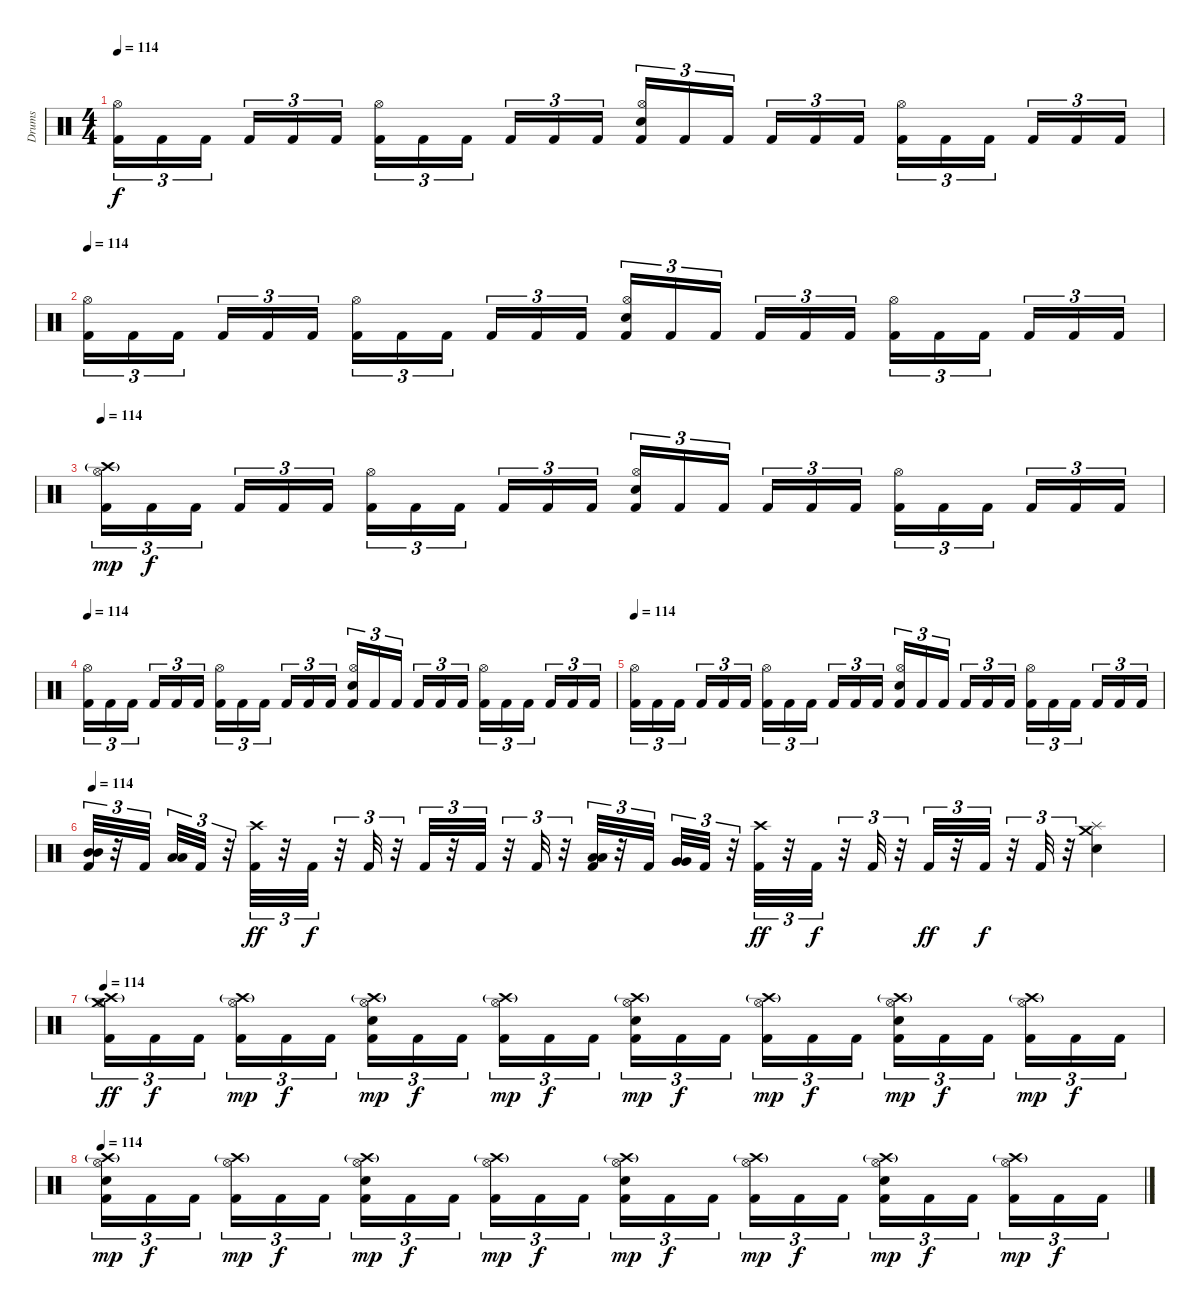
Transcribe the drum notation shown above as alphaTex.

\track ("Drums" "Drums") {instrument percussion}
\staff {score}
\articulation defaults
\ts (4 4)
\tempo 114
\clef neutral
\ks c
("Kick (hit) 2" "Hi-Hat (open)").16{tu (3 2) dy f} "Kick (hit) 2".16{tu (3 2)} "Kick (hit) 2".16{tu (3 2)} "Kick (hit) 2".16{tu (3 2)} "Kick (hit) 2".16{tu (3 2)} "Kick (hit) 2".16{tu (3 2)} ("Kick (hit) 2" "Hi-Hat (open)").16{tu (3 2)} "Kick (hit) 2".16{tu (3 2)} "Kick (hit) 2".16{tu (3 2)} "Kick (hit) 2".16{tu (3 2)} "Kick (hit) 2".16{tu (3 2)} "Kick (hit) 2".16{tu (3 2)} ("Kick (hit) 2" "Electric Snare (hit)" "Hi-Hat (open)").16{tu (3 2)} "Kick (hit) 2".16{tu (3 2)} "Kick (hit) 2".16{tu (3 2)} "Kick (hit) 2".16{tu (3 2)} "Kick (hit) 2".16{tu (3 2)} "Kick (hit) 2".16{tu (3 2)} ("Kick (hit) 2" "Hi-Hat (open)").16{tu (3 2)} "Kick (hit) 2".16{tu (3 2)} "Kick (hit) 2".16{tu (3 2)} "Kick (hit) 2".16{tu (3 2)} "Kick (hit) 2".16{tu (3 2)} "Kick (hit) 2".16{tu (3 2)} |
\tempo 114
("Kick (hit) 2" "Hi-Hat (open)").16{tu (3 2)} "Kick (hit) 2".16{tu (3 2)} "Kick (hit) 2".16{tu (3 2)} "Kick (hit) 2".16{tu (3 2)} "Kick (hit) 2".16{tu (3 2)} "Kick (hit) 2".16{tu (3 2)} ("Kick (hit) 2" "Hi-Hat (open)").16{tu (3 2)} "Kick (hit) 2".16{tu (3 2)} "Kick (hit) 2".16{tu (3 2)} "Kick (hit) 2".16{tu (3 2)} "Kick (hit) 2".16{tu (3 2)} "Kick (hit) 2".16{tu (3 2)} ("Kick (hit) 2" "Electric Snare (hit)" "Hi-Hat (open)").16{tu (3 2)} "Kick (hit) 2".16{tu (3 2)} "Kick (hit) 2".16{tu (3 2)} "Kick (hit) 2".16{tu (3 2)} "Kick (hit) 2".16{tu (3 2)} "Kick (hit) 2".16{tu (3 2)} ("Kick (hit) 2" "Hi-Hat (open)").16{tu (3 2)} "Kick (hit) 2".16{tu (3 2)} "Kick (hit) 2".16{tu (3 2)} "Kick (hit) 2".16{tu (3 2)} "Kick (hit) 2".16{tu (3 2)} "Kick (hit) 2".16{tu (3 2)} |
\tempo 114
("Kick (hit) 2" "Hi-Hat (open)" "Crash high (hit)"{g}).16{tu (3 2) dy mp} "Kick (hit) 2".16{tu (3 2) dy f} "Kick (hit) 2".16{tu (3 2)} "Kick (hit) 2".16{tu (3 2)} "Kick (hit) 2".16{tu (3 2)} "Kick (hit) 2".16{tu (3 2)} ("Kick (hit) 2" "Hi-Hat (open)").16{tu (3 2)} "Kick (hit) 2".16{tu (3 2)} "Kick (hit) 2".16{tu (3 2)} "Kick (hit) 2".16{tu (3 2)} "Kick (hit) 2".16{tu (3 2)} "Kick (hit) 2".16{tu (3 2)} ("Kick (hit) 2" "Electric Snare (hit)" "Hi-Hat (open)").16{tu (3 2)} "Kick (hit) 2".16{tu (3 2)} "Kick (hit) 2".16{tu (3 2)} "Kick (hit) 2".16{tu (3 2)} "Kick (hit) 2".16{tu (3 2)} "Kick (hit) 2".16{tu (3 2)} ("Kick (hit) 2" "Hi-Hat (open)").16{tu (3 2)} "Kick (hit) 2".16{tu (3 2)} "Kick (hit) 2".16{tu (3 2)} "Kick (hit) 2".16{tu (3 2)} "Kick (hit) 2".16{tu (3 2)} "Kick (hit) 2".16{tu (3 2)} |
\tempo 114
("Kick (hit) 2" "Hi-Hat (open)").16{tu (3 2)} "Kick (hit) 2".16{tu (3 2)} "Kick (hit) 2".16{tu (3 2)} "Kick (hit) 2".16{tu (3 2)} "Kick (hit) 2".16{tu (3 2)} "Kick (hit) 2".16{tu (3 2)} ("Kick (hit) 2" "Hi-Hat (open)").16{tu (3 2)} "Kick (hit) 2".16{tu (3 2)} "Kick (hit) 2".16{tu (3 2)} "Kick (hit) 2".16{tu (3 2)} "Kick (hit) 2".16{tu (3 2)} "Kick (hit) 2".16{tu (3 2)} ("Kick (hit) 2" "Electric Snare (hit)" "Hi-Hat (open)").16{tu (3 2)} "Kick (hit) 2".16{tu (3 2)} "Kick (hit) 2".16{tu (3 2)} "Kick (hit) 2".16{tu (3 2)} "Kick (hit) 2".16{tu (3 2)} "Kick (hit) 2".16{tu (3 2)} ("Kick (hit) 2" "Hi-Hat (open)").16{tu (3 2)} "Kick (hit) 2".16{tu (3 2)} "Kick (hit) 2".16{tu (3 2)} "Kick (hit) 2".16{tu (3 2)} "Kick (hit) 2".16{tu (3 2)} "Kick (hit) 2".16{tu (3 2)} |
\tempo 114
("Kick (hit) 2" "Hi-Hat (open)").16{tu (3 2)} "Kick (hit) 2".16{tu (3 2)} "Kick (hit) 2".16{tu (3 2)} "Kick (hit) 2".16{tu (3 2)} "Kick (hit) 2".16{tu (3 2)} "Kick (hit) 2".16{tu (3 2)} ("Kick (hit) 2" "Hi-Hat (open)").16{tu (3 2)} "Kick (hit) 2".16{tu (3 2)} "Kick (hit) 2".16{tu (3 2)} "Kick (hit) 2".16{tu (3 2)} "Kick (hit) 2".16{tu (3 2)} "Kick (hit) 2".16{tu (3 2)} ("Kick (hit) 2" "Electric Snare (hit)" "Hi-Hat (open)").16{tu (3 2)} "Kick (hit) 2".16{tu (3 2)} "Kick (hit) 2".16{tu (3 2)} "Kick (hit) 2".16{tu (3 2)} "Kick (hit) 2".16{tu (3 2)} "Kick (hit) 2".16{tu (3 2)} ("Kick (hit) 2" "Hi-Hat (open)").16{tu (3 2)} "Kick (hit) 2".16{tu (3 2)} "Kick (hit) 2".16{tu (3 2)} "Kick (hit) 2".16{tu (3 2)} "Kick (hit) 2".16{tu (3 2)} "Kick (hit) 2".16{tu (3 2)} |
\tempo 114
("Kick (hit) 2" "Mid Tom (hit)" "Mid Tom (hit)").32{tu (3 2)} r.32{tu (3 2)} "Kick (hit) 2".32{tu (3 2)} ("Low Tom (hit)" "Low Tom (hit)").32{tu (3 2)} "Kick (hit) 2".32{tu (3 2)} r.32{tu (3 2)} ("Kick (hit) 2" "Crash high (hit)").32{tu (3 2) dy ff} r.32{tu (3 2)} "Kick (hit) 2".32{tu (3 2) dy f} r.32{tu (3 2)} "Kick (hit) 2".32{tu (3 2)} r.32{tu (3 2)} "Kick (hit) 2".32{tu (3 2)} r.32{tu (3 2)} "Kick (hit) 2".32{tu (3 2)} r.32{tu (3 2)} "Kick (hit) 2".32{tu (3 2)} r.32{tu (3 2)} ("Kick (hit) 2" "Low Tom (hit)" "Low Tom (hit)").32{tu (3 2)} r.32{tu (3 2)} "Kick (hit) 2".32{tu (3 2)} ("Very Low Tom (hit)" "Very Low Tom (hit)").32{tu (3 2)} "Kick (hit) 2".32{tu (3 2)} r.32{tu (3 2)} ("Kick (hit) 2" "Crash high (hit)").32{tu (3 2) dy ff} r.32{tu (3 2)} "Kick (hit) 2".32{tu (3 2) dy f} r.32{tu (3 2)} "Kick (hit) 2".32{tu (3 2)} r.32{tu (3 2)} "Kick (hit) 2".32{tu (3 2) dy ff} r.32{tu (3 2)} "Kick (hit) 2".32{tu (3 2) dy f} r.32{tu (3 2)} "Kick (hit) 2".32{tu (3 2)} r.32{tu (3 2)} ("Electric Snare (hit)" "Crash medium (hit)" "Splash (hit)").4 |
\tempo 114
("Kick (hit) 2" "Hi-Hat (open)" "Crash high (hit)"{g} "Crash medium (hit)").16{tu (3 2) dy ff} "Kick (hit) 2".16{tu (3 2) dy f} "Kick (hit) 2".16{tu (3 2)} ("Kick (hit) 2" "Hi-Hat (open)" "Crash high (hit)"{g}).16{tu (3 2) dy mp} "Kick (hit) 2".16{tu (3 2) dy f} "Kick (hit) 2".16{tu (3 2)} ("Kick (hit) 2" "Electric Snare (hit)" "Hi-Hat (open)" "Crash high (hit)"{g}).16{tu (3 2) dy mp} "Kick (hit) 2".16{tu (3 2) dy f} "Kick (hit) 2".16{tu (3 2)} ("Kick (hit) 2" "Hi-Hat (open)" "Crash high (hit)"{g}).16{tu (3 2) dy mp} "Kick (hit) 2".16{tu (3 2) dy f} "Kick (hit) 2".16{tu (3 2)} ("Kick (hit) 2" "Electric Snare (hit)" "Hi-Hat (open)" "Crash high (hit)"{g}).16{tu (3 2) dy mp} "Kick (hit) 2".16{tu (3 2) dy f} "Kick (hit) 2".16{tu (3 2)} ("Kick (hit) 2" "Hi-Hat (open)" "Crash high (hit)"{g}).16{tu (3 2) dy mp} "Kick (hit) 2".16{tu (3 2) dy f} "Kick (hit) 2".16{tu (3 2)} ("Kick (hit) 2" "Electric Snare (hit)" "Hi-Hat (open)" "Crash high (hit)"{g}).16{tu (3 2) dy mp} "Kick (hit) 2".16{tu (3 2) dy f} "Kick (hit) 2".16{tu (3 2)} ("Kick (hit) 2" "Hi-Hat (open)" "Crash high (hit)"{g}).16{tu (3 2) dy mp} "Kick (hit) 2".16{tu (3 2) dy f} "Kick (hit) 2".16{tu (3 2)} |
\tempo 114
("Kick (hit) 2" "Electric Snare (hit)" "Hi-Hat (open)" "Crash high (hit)"{g}).16{tu (3 2) dy mp} "Kick (hit) 2".16{tu (3 2) dy f} "Kick (hit) 2".16{tu (3 2)} ("Kick (hit) 2" "Hi-Hat (open)" "Crash high (hit)"{g}).16{tu (3 2) dy mp} "Kick (hit) 2".16{tu (3 2) dy f} "Kick (hit) 2".16{tu (3 2)} ("Kick (hit) 2" "Electric Snare (hit)" "Hi-Hat (open)" "Crash high (hit)"{g}).16{tu (3 2) dy mp} "Kick (hit) 2".16{tu (3 2) dy f} "Kick (hit) 2".16{tu (3 2)} ("Kick (hit) 2" "Hi-Hat (open)" "Crash high (hit)"{g}).16{tu (3 2) dy mp} "Kick (hit) 2".16{tu (3 2) dy f} "Kick (hit) 2".16{tu (3 2)} ("Kick (hit) 2" "Electric Snare (hit)" "Hi-Hat (open)" "Crash high (hit)"{g}).16{tu (3 2) dy mp} "Kick (hit) 2".16{tu (3 2) dy f} "Kick (hit) 2".16{tu (3 2)} ("Kick (hit) 2" "Hi-Hat (open)" "Crash high (hit)"{g}).16{tu (3 2) dy mp} "Kick (hit) 2".16{tu (3 2) dy f} "Kick (hit) 2".16{tu (3 2)} ("Kick (hit) 2" "Electric Snare (hit)" "Hi-Hat (open)" "Crash high (hit)"{g}).16{tu (3 2) dy mp} "Kick (hit) 2".16{tu (3 2) dy f} "Kick (hit) 2".16{tu (3 2)} ("Kick (hit) 2" "Hi-Hat (open)" "Crash high (hit)"{g}).16{tu (3 2) dy mp} "Kick (hit) 2".16{tu (3 2) dy f} "Kick (hit) 2".16{tu (3 2)}
